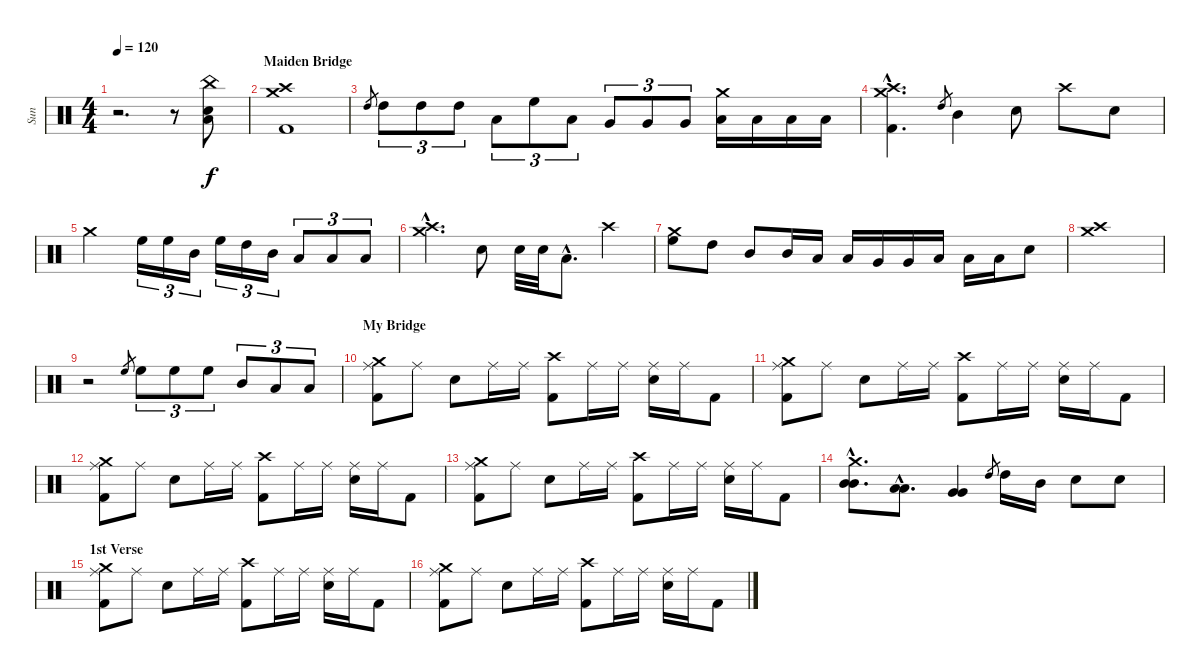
\track ("Sun" "Sun") {instrument percussion}
\staff {score}
\articulation defaults
\ts (4 4)
\tempo 120
\clef neutral
\ks c
r.2{d dy f} r.8 ("China (hit)" "Low Tom (hit)" "Electric Snare (hit)").8 |
\section ("" "Maiden Bridge")
("Crash high (hit)" "Crash medium (hit)" "Kick (hit) 2").1 |
"High Tom (hit)".8{gr} "High Tom (hit)".8{tu (3 2)} "High Tom (hit)".8{tu (3 2)} "High Tom (hit)".8{tu (3 2)} "Low Tom (hit)".8{tu (3 2)} "High Floor Tom (hit)".8{tu (3 2)} "Low Tom (hit)".8{tu (3 2)} "Very Low Tom (hit)".8{tu (3 2)} "Very Low Tom (hit)".8{tu (3 2)} "Very Low Tom (hit)".8{tu (3 2)} ("Crash medium (hit)" "Low Tom (hit)").16 "Low Tom (hit)".16 "Low Tom (hit)".16 "Low Tom (hit)".16 |
("Crash high (hit)"{hac} "Crash medium (hit)"{hac} "Kick (hit) 2"{hac}).4{d} "High Tom (hit)".8{gr} "Mid Tom (hit)".4 "Electric Snare (hit)".8 "Crash high (hit)".8 "Electric Snare (hit)".8 |
"Crash medium (hit)".2 "High Floor Tom (hit)".16{tu (3 2)} "High Floor Tom (hit)".16{tu (3 2)} "Mid Tom (hit)".16{tu (3 2)} "High Floor Tom (hit)".16{tu (3 2)} "High Tom (hit)".16{tu (3 2)} "Mid Tom (hit)".16{tu (3 2)} "Low Tom (hit)".8{tu (3 2)} "Low Tom (hit)".8{tu (3 2)} "Low Tom (hit)".8{tu (3 2)} |
("Crash medium (hit)"{hac} "Crash high (hit)"{hac}).4{d} "Electric Snare (hit)".8 "Electric Snare (hit)".32 "Electric Snare (hit)".32 "Low Tom (hit)"{hac}.8{d} "Crash high (hit)".4 |
("Crash medium (hit)" "High Floor Tom (hit)").8 "High Tom (hit)".8 "Mid Tom (hit)".8 "Mid Tom (hit)".16 "Low Tom (hit)".16 "Low Tom (hit)".16 "Very Low Tom (hit)".16 "Very Low Tom (hit)".16 "Low Floor Tom (hit)".16 "Low Floor Tom (hit)".16 "Low Floor Tom (hit)".16 "Electric Snare (hit)".8 |
("Crash high (hit)" "Crash medium (hit)").1 |
r.2 "High Floor Tom (hit)".8{gr} "High Floor Tom (hit)".8{tu (3 2)} "High Floor Tom (hit)".8{tu (3 2)} "High Floor Tom (hit)".8{tu (3 2)} "Mid Tom (hit)".8{tu (3 2)} "Low Tom (hit)".8{tu (3 2)} "Low Tom (hit)".8{tu (3 2)} |
\section ("" "My Bridge")
("Ride (middle)" "Crash medium (hit)" "Kick (hit) 2").8 "Ride (middle)".8 "Electric Snare (hit)".8 "Ride (middle)".16 "Ride (middle)".16 ("Crash high (hit)" "Kick (hit) 2").8 "Ride (middle)".16 "Ride (middle)".16 ("Ride (middle)" "Electric Snare (hit)").16 "Ride (middle)".16 "Kick (hit) 2".8 |
("Ride (middle)" "Crash medium (hit)" "Kick (hit) 2").8 "Ride (middle)".8 "Electric Snare (hit)".8 "Ride (middle)".16 "Ride (middle)".16 ("Crash high (hit)" "Kick (hit) 2").8 "Ride (middle)".16 "Ride (middle)".16 ("Ride (middle)" "Electric Snare (hit)").16 "Ride (middle)".16 "Kick (hit) 2".8 |
("Ride (middle)" "Crash medium (hit)" "Kick (hit) 2").8 "Ride (middle)".8 "Electric Snare (hit)".8 "Ride (middle)".16 "Ride (middle)".16 ("Crash high (hit)" "Kick (hit) 2").8 "Ride (middle)".16 "Ride (middle)".16 ("Ride (middle)" "Electric Snare (hit)").16 "Ride (middle)".16 "Kick (hit) 2".8 |
("Ride (middle)" "Crash medium (hit)" "Kick (hit) 2").8 "Ride (middle)".8 "Electric Snare (hit)".8 "Ride (middle)".16 "Ride (middle)".16 ("Crash high (hit)" "Kick (hit) 2").8 "Ride (middle)".16 "Ride (middle)".16 ("Ride (middle)" "Electric Snare (hit)").16 "Ride (middle)".16 "Kick (hit) 2".8 |
("Crash medium (hit)"{hac} "Mid Tom (hit)"{hac} "Mid Tom (hit)"{hac}).8{d} ("Low Tom (hit)"{hac} "Low Tom (hit)"{hac}).8{d} ("Very Low Tom (hit)" "Very Low Tom (hit)").4 "High Tom (hit)".8{gr} "High Tom (hit)".16 "Mid Tom (hit)".16 "Electric Snare (hit)".8 "Electric Snare (hit)".8 |
\section ("" "1st Verse")
("Ride (middle)" "Crash medium (hit)" "Kick (hit) 2").8 "Ride (middle)".8 "Electric Snare (hit)".8 "Ride (middle)".16 "Ride (middle)".16 ("Crash high (hit)" "Kick (hit) 2").8 "Ride (middle)".16 "Ride (middle)".16 ("Ride (middle)" "Electric Snare (hit)").16 "Ride (middle)".16 "Kick (hit) 2".8 |
("Ride (middle)" "Crash medium (hit)" "Kick (hit) 2").8 "Ride (middle)".8 "Electric Snare (hit)".8 "Ride (middle)".16 "Ride (middle)".16 ("Crash high (hit)" "Kick (hit) 2").8 "Ride (middle)".16 "Ride (middle)".16 ("Ride (middle)" "Electric Snare (hit)").16 "Ride (middle)".16 "Kick (hit) 2".8
